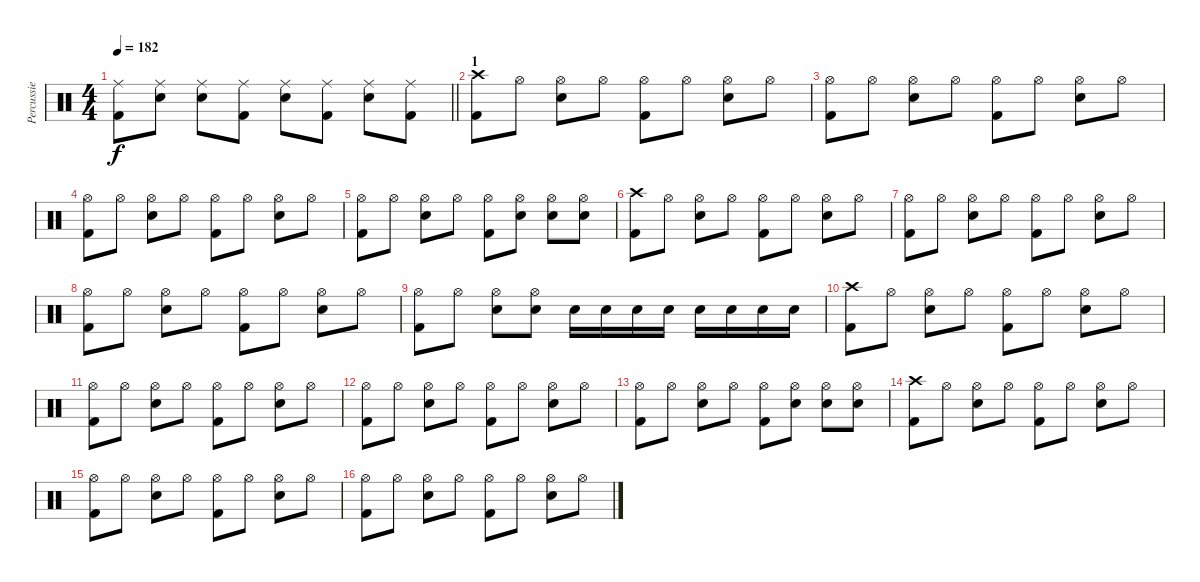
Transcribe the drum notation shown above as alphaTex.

\track ("Percussie" "Percussie") {instrument percussion}
\staff {score}
\articulation defaults
\ts (4 4)
\tempo 182
\clef neutral
\barLineRight lightlight
\ks c
("Ride (middle)" "Kick (hit) 2").8{dy f} ("Ride (middle)" "Snare (hit) 2").8 ("Ride (middle)" "Snare (hit) 2").8 ("Ride (middle)" "Kick (hit) 2").8 ("Ride (middle)" "Snare (hit) 2").8 ("Ride (middle)" "Kick (hit) 2").8 ("Ride (middle)" "Snare (hit) 2").8 ("Ride (middle)" "Kick (hit) 2").8 |
\section ("" "1")
("Crash high (hit)" "Kick (hit) 2").8 "Hi-Hat (open)".8 ("Hi-Hat (open)" "Snare (hit) 2").8 "Hi-Hat (open)".8 ("Hi-Hat (open)" "Kick (hit) 2").8 "Hi-Hat (open)".8 ("Hi-Hat (open)" "Snare (hit) 2").8 "Hi-Hat (open)".8 |
("Hi-Hat (open)" "Kick (hit) 2").8 "Hi-Hat (open)".8 ("Hi-Hat (open)" "Snare (hit) 2").8 "Hi-Hat (open)".8 ("Hi-Hat (open)" "Kick (hit) 2").8 "Hi-Hat (open)".8 ("Hi-Hat (open)" "Snare (hit) 2").8 "Hi-Hat (open)".8 |
("Hi-Hat (open)" "Kick (hit) 2").8 "Hi-Hat (open)".8 ("Hi-Hat (open)" "Snare (hit) 2").8 "Hi-Hat (open)".8 ("Hi-Hat (open)" "Kick (hit) 2").8 "Hi-Hat (open)".8 ("Hi-Hat (open)" "Snare (hit) 2").8 "Hi-Hat (open)".8 |
("Hi-Hat (open)" "Kick (hit) 2").8 "Hi-Hat (open)".8 ("Hi-Hat (open)" "Snare (hit) 2").8 "Hi-Hat (open)".8 ("Hi-Hat (open)" "Kick (hit) 2").8 ("Hi-Hat (open)" "Snare (hit) 2").8 ("Hi-Hat (open)" "Snare (hit) 2").8 ("Hi-Hat (open)" "Snare (hit) 2").8 |
("Crash high (hit)" "Kick (hit) 2").8 "Hi-Hat (open)".8 ("Hi-Hat (open)" "Snare (hit) 2").8 "Hi-Hat (open)".8 ("Hi-Hat (open)" "Kick (hit) 2").8 "Hi-Hat (open)".8 ("Hi-Hat (open)" "Snare (hit) 2").8 "Hi-Hat (open)".8 |
("Hi-Hat (open)" "Kick (hit) 2").8 "Hi-Hat (open)".8 ("Hi-Hat (open)" "Snare (hit) 2").8 "Hi-Hat (open)".8 ("Hi-Hat (open)" "Kick (hit) 2").8 "Hi-Hat (open)".8 ("Hi-Hat (open)" "Snare (hit) 2").8 "Hi-Hat (open)".8 |
("Hi-Hat (open)" "Kick (hit) 2").8 "Hi-Hat (open)".8 ("Hi-Hat (open)" "Snare (hit) 2").8 "Hi-Hat (open)".8 ("Hi-Hat (open)" "Kick (hit) 2").8 "Hi-Hat (open)".8 ("Hi-Hat (open)" "Snare (hit) 2").8 "Hi-Hat (open)".8 |
("Hi-Hat (open)" "Kick (hit) 2").8 "Hi-Hat (open)".8 ("Hi-Hat (open)" "Snare (hit) 2").8 ("Hi-Hat (open)" "Snare (hit) 2").8 "Snare (hit) 2".16 "Snare (hit) 2".16 "Snare (hit) 2".16 "Snare (hit) 2".16 "Snare (hit) 2".16 "Snare (hit) 2".16 "Snare (hit) 2".16 "Snare (hit) 2".16 |
("Crash high (hit)" "Kick (hit) 2").8 "Hi-Hat (open)".8 ("Hi-Hat (open)" "Snare (hit) 2").8 "Hi-Hat (open)".8 ("Hi-Hat (open)" "Kick (hit) 2").8 "Hi-Hat (open)".8 ("Hi-Hat (open)" "Snare (hit) 2").8 "Hi-Hat (open)".8 |
("Hi-Hat (open)" "Kick (hit) 2").8 "Hi-Hat (open)".8 ("Hi-Hat (open)" "Snare (hit) 2").8 "Hi-Hat (open)".8 ("Hi-Hat (open)" "Kick (hit) 2").8 "Hi-Hat (open)".8 ("Hi-Hat (open)" "Snare (hit) 2").8 "Hi-Hat (open)".8 |
("Hi-Hat (open)" "Kick (hit) 2").8 "Hi-Hat (open)".8 ("Hi-Hat (open)" "Snare (hit) 2").8 "Hi-Hat (open)".8 ("Hi-Hat (open)" "Kick (hit) 2").8 "Hi-Hat (open)".8 ("Hi-Hat (open)" "Snare (hit) 2").8 "Hi-Hat (open)".8 |
("Hi-Hat (open)" "Kick (hit) 2").8 "Hi-Hat (open)".8 ("Hi-Hat (open)" "Snare (hit) 2").8 "Hi-Hat (open)".8 ("Hi-Hat (open)" "Kick (hit) 2").8 ("Hi-Hat (open)" "Snare (hit) 2").8 ("Hi-Hat (open)" "Snare (hit) 2").8 ("Hi-Hat (open)" "Snare (hit) 2").8 |
("Crash high (hit)" "Kick (hit) 2").8 "Hi-Hat (open)".8 ("Hi-Hat (open)" "Snare (hit) 2").8 "Hi-Hat (open)".8 ("Hi-Hat (open)" "Kick (hit) 2").8 "Hi-Hat (open)".8 ("Hi-Hat (open)" "Snare (hit) 2").8 "Hi-Hat (open)".8 |
("Hi-Hat (open)" "Kick (hit) 2").8 "Hi-Hat (open)".8 ("Hi-Hat (open)" "Snare (hit) 2").8 "Hi-Hat (open)".8 ("Hi-Hat (open)" "Kick (hit) 2").8 "Hi-Hat (open)".8 ("Hi-Hat (open)" "Snare (hit) 2").8 "Hi-Hat (open)".8 |
("Hi-Hat (open)" "Kick (hit) 2").8 "Hi-Hat (open)".8 ("Hi-Hat (open)" "Snare (hit) 2").8 "Hi-Hat (open)".8 ("Hi-Hat (open)" "Kick (hit) 2").8 "Hi-Hat (open)".8 ("Hi-Hat (open)" "Snare (hit) 2").8 "Hi-Hat (open)".8
